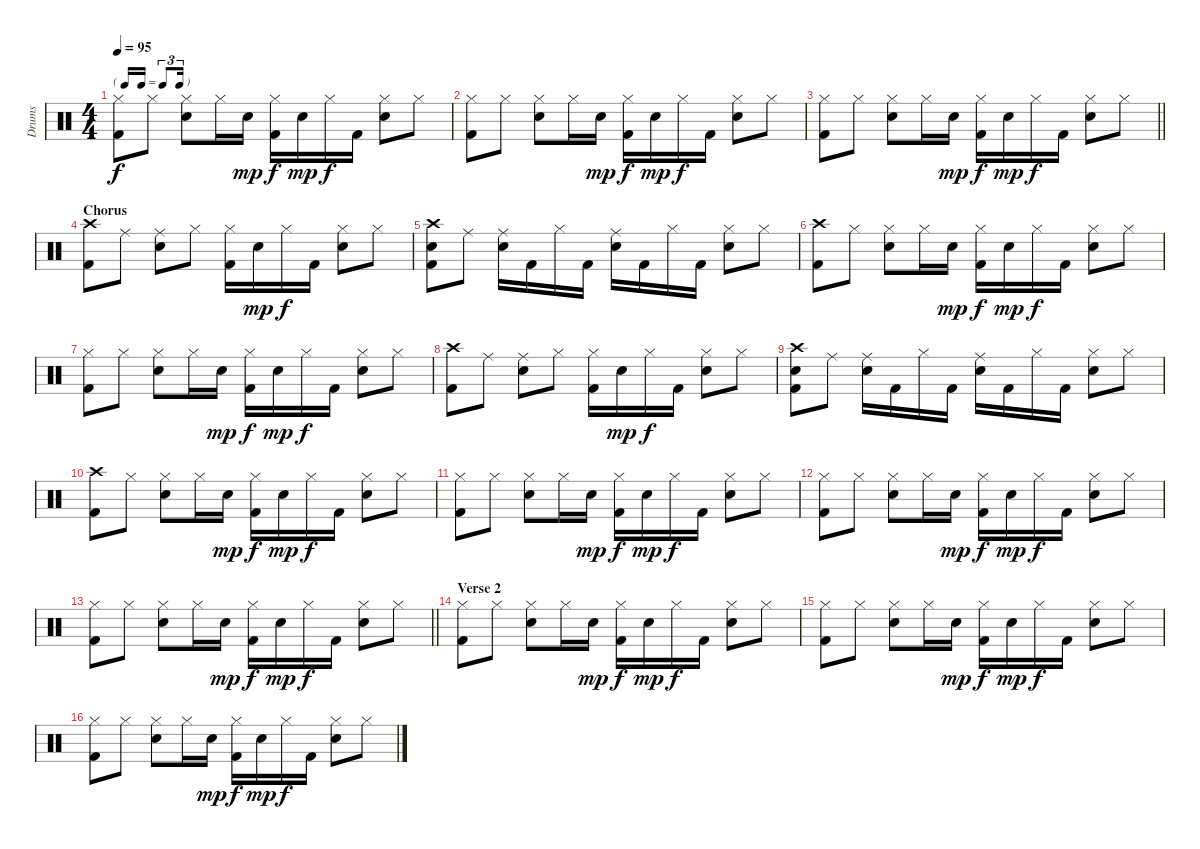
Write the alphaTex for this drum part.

\track ("Drums" "Drums") {instrument percussion}
\staff {score}
\articulation defaults
\ts (4 4)
\tf triplet16th
\tempo 95
\clef neutral
\ks c
("Hi-Hat (closed)" "Kick (hit) 2").8{dy f} "Hi-Hat (closed)".8 ("Hi-Hat (closed)" "Snare (hit) 2").8 "Hi-Hat (closed)".16 "Snare (hit) 2".16{dy mp} ("Hi-Hat (closed)" "Kick (hit) 2").16{dy f} "Snare (hit) 2".16{dy mp} "Hi-Hat (closed)".16{dy f} "Kick (hit) 2".16 ("Hi-Hat (closed)" "Snare (hit) 2").8 "Hi-Hat (closed)".8 |
("Hi-Hat (closed)" "Kick (hit) 2").8 "Hi-Hat (closed)".8 ("Hi-Hat (closed)" "Snare (hit) 2").8 "Hi-Hat (closed)".16 "Snare (hit) 2".16{dy mp} ("Hi-Hat (closed)" "Kick (hit) 2").16{dy f} "Snare (hit) 2".16{dy mp} "Hi-Hat (closed)".16{dy f} "Kick (hit) 2".16 ("Hi-Hat (closed)" "Snare (hit) 2").8 "Hi-Hat (closed)".8 |
\barLineRight lightlight
("Hi-Hat (closed)" "Kick (hit) 2").8 "Hi-Hat (closed)".8 ("Hi-Hat (closed)" "Snare (hit) 2").8 "Hi-Hat (closed)".16 "Snare (hit) 2".16{dy mp} ("Hi-Hat (closed)" "Kick (hit) 2").16{dy f} "Snare (hit) 2".16{dy mp} "Hi-Hat (closed)".16{dy f} "Kick (hit) 2".16 ("Hi-Hat (closed)" "Snare (hit) 2").8 "Hi-Hat (closed)".8 |
\section ("" "Chorus")
("Crash high (hit)" "Kick (hit) 2").8 "Ride (middle)".8 ("Ride (middle)" "Snare (hit) 2").8 "Hi-Hat (closed)".8 ("Hi-Hat (closed)" "Kick (hit) 2").16 "Snare (hit) 2".16{dy mp} "Hi-Hat (closed)".16{dy f} "Kick (hit) 2".16 ("Hi-Hat (closed)" "Snare (hit) 2").8 "Hi-Hat (closed)".8 |
("Crash high (hit)" "Snare (hit) 2" "Kick (hit) 2").8 "Ride (middle)".8 ("Ride (middle)" "Snare (hit) 2").16 "Kick (hit) 2".16 "Hi-Hat (closed)".16 "Kick (hit) 2".16 ("Ride (middle)" "Snare (hit) 2").16 "Kick (hit) 2".16 "Hi-Hat (closed)".16 "Kick (hit) 2".16 ("Hi-Hat (closed)" "Snare (hit) 2").8 "Hi-Hat (closed)".8 |
("Crash high (hit)" "Kick (hit) 2").8 "Hi-Hat (closed)".8 ("Hi-Hat (closed)" "Snare (hit) 2").8 "Hi-Hat (closed)".16 "Snare (hit) 2".16{dy mp} ("Hi-Hat (closed)" "Kick (hit) 2").16{dy f} "Snare (hit) 2".16{dy mp} "Hi-Hat (closed)".16{dy f} "Kick (hit) 2".16 ("Hi-Hat (closed)" "Snare (hit) 2").8 "Hi-Hat (closed)".8 |
("Hi-Hat (closed)" "Kick (hit) 2").8 "Hi-Hat (closed)".8 ("Hi-Hat (closed)" "Snare (hit) 2").8 "Hi-Hat (closed)".16 "Snare (hit) 2".16{dy mp} ("Hi-Hat (closed)" "Kick (hit) 2").16{dy f} "Snare (hit) 2".16{dy mp} "Hi-Hat (closed)".16{dy f} "Kick (hit) 2".16 ("Hi-Hat (closed)" "Snare (hit) 2").8 "Hi-Hat (closed)".8 |
("Crash high (hit)" "Kick (hit) 2").8 "Ride (middle)".8 ("Ride (middle)" "Snare (hit) 2").8 "Hi-Hat (closed)".8 ("Hi-Hat (closed)" "Kick (hit) 2").16 "Snare (hit) 2".16{dy mp} "Hi-Hat (closed)".16{dy f} "Kick (hit) 2".16 ("Hi-Hat (closed)" "Snare (hit) 2").8 "Hi-Hat (closed)".8 |
("Crash high (hit)" "Snare (hit) 2" "Kick (hit) 2").8 "Ride (middle)".8 ("Ride (middle)" "Snare (hit) 2").16 "Kick (hit) 2".16 "Hi-Hat (closed)".16 "Kick (hit) 2".16 ("Ride (middle)" "Snare (hit) 2").16 "Kick (hit) 2".16 "Hi-Hat (closed)".16 "Kick (hit) 2".16 ("Hi-Hat (closed)" "Snare (hit) 2").8 "Hi-Hat (closed)".8 |
("Crash high (hit)" "Kick (hit) 2").8 "Hi-Hat (closed)".8 ("Hi-Hat (closed)" "Snare (hit) 2").8 "Hi-Hat (closed)".16 "Snare (hit) 2".16{dy mp} ("Hi-Hat (closed)" "Kick (hit) 2").16{dy f} "Snare (hit) 2".16{dy mp} "Hi-Hat (closed)".16{dy f} "Kick (hit) 2".16 ("Hi-Hat (closed)" "Snare (hit) 2").8 "Hi-Hat (closed)".8 |
("Hi-Hat (closed)" "Kick (hit) 2").8 "Hi-Hat (closed)".8 ("Hi-Hat (closed)" "Snare (hit) 2").8 "Hi-Hat (closed)".16 "Snare (hit) 2".16{dy mp} ("Hi-Hat (closed)" "Kick (hit) 2").16{dy f} "Snare (hit) 2".16{dy mp} "Hi-Hat (closed)".16{dy f} "Kick (hit) 2".16 ("Hi-Hat (closed)" "Snare (hit) 2").8 "Hi-Hat (closed)".8 |
("Hi-Hat (closed)" "Kick (hit) 2").8 "Hi-Hat (closed)".8 ("Hi-Hat (closed)" "Snare (hit) 2").8 "Hi-Hat (closed)".16 "Snare (hit) 2".16{dy mp} ("Hi-Hat (closed)" "Kick (hit) 2").16{dy f} "Snare (hit) 2".16{dy mp} "Hi-Hat (closed)".16{dy f} "Kick (hit) 2".16 ("Hi-Hat (closed)" "Snare (hit) 2").8 "Hi-Hat (closed)".8 |
\barLineRight lightlight
("Hi-Hat (closed)" "Kick (hit) 2").8 "Hi-Hat (closed)".8 ("Hi-Hat (closed)" "Snare (hit) 2").8 "Hi-Hat (closed)".16 "Snare (hit) 2".16{dy mp} ("Hi-Hat (closed)" "Kick (hit) 2").16{dy f} "Snare (hit) 2".16{dy mp} "Hi-Hat (closed)".16{dy f} "Kick (hit) 2".16 ("Hi-Hat (closed)" "Snare (hit) 2").8 "Hi-Hat (closed)".8 |
\section ("" "Verse 2")
("Hi-Hat (closed)" "Kick (hit) 2").8 "Hi-Hat (closed)".8 ("Hi-Hat (closed)" "Snare (hit) 2").8 "Hi-Hat (closed)".16 "Snare (hit) 2".16{dy mp} ("Hi-Hat (closed)" "Kick (hit) 2").16{dy f} "Snare (hit) 2".16{dy mp} "Hi-Hat (closed)".16{dy f} "Kick (hit) 2".16 ("Hi-Hat (closed)" "Snare (hit) 2").8 "Hi-Hat (closed)".8 |
("Hi-Hat (closed)" "Kick (hit) 2").8 "Hi-Hat (closed)".8 ("Hi-Hat (closed)" "Snare (hit) 2").8 "Hi-Hat (closed)".16 "Snare (hit) 2".16{dy mp} ("Hi-Hat (closed)" "Kick (hit) 2").16{dy f} "Snare (hit) 2".16{dy mp} "Hi-Hat (closed)".16{dy f} "Kick (hit) 2".16 ("Hi-Hat (closed)" "Snare (hit) 2").8 "Hi-Hat (closed)".8 |
("Hi-Hat (closed)" "Kick (hit) 2").8 "Hi-Hat (closed)".8 ("Hi-Hat (closed)" "Snare (hit) 2").8 "Hi-Hat (closed)".16 "Snare (hit) 2".16{dy mp} ("Hi-Hat (closed)" "Kick (hit) 2").16{dy f} "Snare (hit) 2".16{dy mp} "Hi-Hat (closed)".16{dy f} "Kick (hit) 2".16 ("Hi-Hat (closed)" "Snare (hit) 2").8 "Hi-Hat (closed)".8
